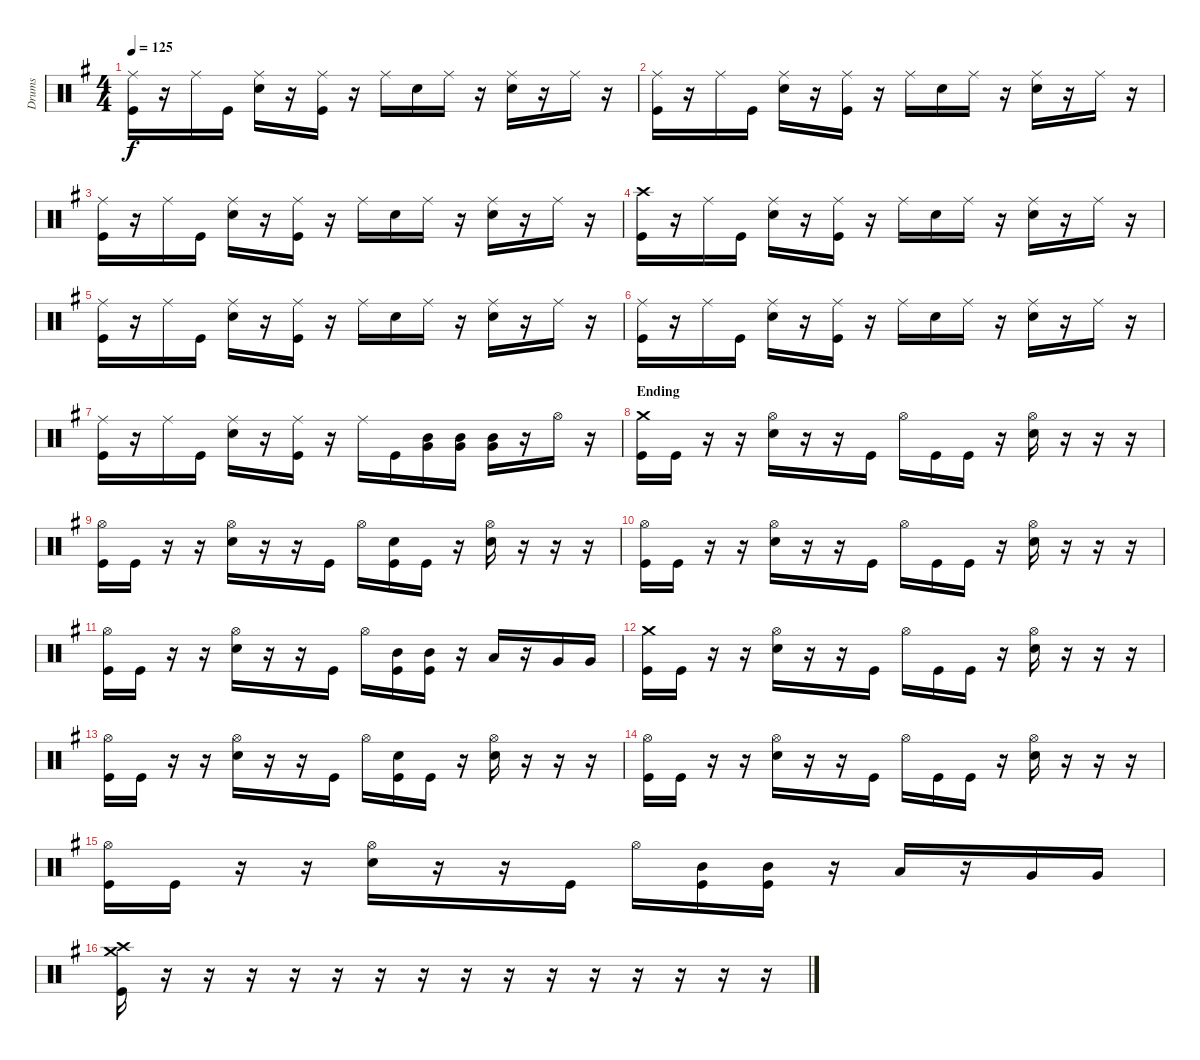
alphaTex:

\track ("Drums" "Drums") {instrument percussion}
\staff {score}
\articulation defaults
\ts (4 4)
\tempo 125
\clef neutral
\ks eminor
("Ride (middle)" "Kick (hit)").16{dy f} r.16 "Ride (middle)".16 "Kick (hit)".16 ("Ride (middle)" "Electric Snare (hit)").16 r.16 ("Ride (middle)" "Kick (hit)").16 r.16 "Ride (middle)".16 "Electric Snare (hit)".16 "Ride (middle)".16 r.16 ("Ride (middle)" "Electric Snare (hit)").16 r.16 "Ride (middle)".16 r.16 |
("Ride (middle)" "Kick (hit)").16 r.16 "Ride (middle)".16 "Kick (hit)".16 ("Ride (middle)" "Electric Snare (hit)").16 r.16 ("Ride (middle)" "Kick (hit)").16 r.16 "Ride (middle)".16 "Electric Snare (hit)".16 "Ride (middle)".16 r.16 ("Ride (middle)" "Electric Snare (hit)").16 r.16 "Ride (middle)".16 r.16 |
("Ride (middle)" "Kick (hit)").16 r.16 "Ride (middle)".16 "Kick (hit)".16 ("Ride (middle)" "Electric Snare (hit)").16 r.16 ("Ride (middle)" "Kick (hit)").16 r.16 "Ride (middle)".16 "Electric Snare (hit)".16 "Ride (middle)".16 r.16 ("Ride (middle)" "Electric Snare (hit)").16 r.16 "Ride (middle)".16 r.16 |
("Crash high (hit)" "Kick (hit)").16 r.16 "Ride (middle)".16 "Kick (hit)".16 ("Ride (middle)" "Electric Snare (hit)").16 r.16 ("Ride (middle)" "Kick (hit)").16 r.16 "Ride (middle)".16 "Electric Snare (hit)".16 "Ride (middle)".16 r.16 ("Ride (middle)" "Electric Snare (hit)").16 r.16 "Ride (middle)".16 r.16 |
("Ride (middle)" "Kick (hit)").16 r.16 "Ride (middle)".16 "Kick (hit)".16 ("Ride (middle)" "Electric Snare (hit)").16 r.16 ("Ride (middle)" "Kick (hit)").16 r.16 "Ride (middle)".16 "Electric Snare (hit)".16 "Ride (middle)".16 r.16 ("Ride (middle)" "Electric Snare (hit)").16 r.16 "Ride (middle)".16 r.16 |
("Ride (middle)" "Kick (hit)").16 r.16 "Ride (middle)".16 "Kick (hit)".16 ("Ride (middle)" "Electric Snare (hit)").16 r.16 ("Ride (middle)" "Kick (hit)").16 r.16 "Ride (middle)".16 "Electric Snare (hit)".16 "Ride (middle)".16 r.16 ("Ride (middle)" "Electric Snare (hit)").16 r.16 "Ride (middle)".16 r.16 |
("Ride (middle)" "Kick (hit)").16 r.16 "Ride (middle)".16 "Kick (hit)".16 ("Ride (middle)" "Electric Snare (hit)").16 r.16 ("Ride (middle)" "Kick (hit)").16 r.16 "Ride (middle)".16 "Kick (hit)".16 ("Mid Tom (hit)" "Very Low Tom (hit)").16 ("Mid Tom (hit)" "Very Low Tom (hit)").16 ("Mid Tom (hit)" "Very Low Tom (hit)").16 r.16 "Hi-Hat (open)".16 r.16 |
\section ("" "Ending")
("Crash medium (hit)" "Kick (hit)").16 "Kick (hit)".16 r.16 r.16 ("Hi-Hat (open)" "Electric Snare (hit)").16 r.16 r.16 "Kick (hit)".16 "Hi-Hat (open)".16 "Kick (hit)".16 "Kick (hit)".16 r.16 ("Hi-Hat (open)" "Electric Snare (hit)").16 r.16 r.16 r.16 |
("Hi-Hat (open)" "Kick (hit)").16 "Kick (hit)".16 r.16 r.16 ("Hi-Hat (open)" "Electric Snare (hit)").16 r.16 r.16 "Kick (hit)".16 "Hi-Hat (open)".16 ("Electric Snare (hit)" "Kick (hit)").16 "Kick (hit)".16 r.16 ("Hi-Hat (open)" "Electric Snare (hit)").16 r.16 r.16 r.16 |
("Hi-Hat (open)" "Kick (hit)").16 "Kick (hit)".16 r.16 r.16 ("Hi-Hat (open)" "Electric Snare (hit)").16 r.16 r.16 "Kick (hit)".16 "Hi-Hat (open)".16 "Kick (hit)".16 "Kick (hit)".16 r.16 ("Hi-Hat (open)" "Electric Snare (hit)").16 r.16 r.16 r.16 |
("Hi-Hat (open)" "Kick (hit)").16 "Kick (hit)".16 r.16 r.16 ("Hi-Hat (open)" "Electric Snare (hit)").16 r.16 r.16 "Kick (hit)".16 "Hi-Hat (open)".16 ("Mid Tom (hit)" "Kick (hit)").16 ("Mid Tom (hit)" "Kick (hit)").16 r.16 "Low Tom (hit)".16 r.16 "Very Low Tom (hit)".16 "Very Low Tom (hit)".16 |
("Crash medium (hit)" "Kick (hit)").16 "Kick (hit)".16 r.16 r.16 ("Hi-Hat (open)" "Electric Snare (hit)").16 r.16 r.16 "Kick (hit)".16 "Hi-Hat (open)".16 "Kick (hit)".16 "Kick (hit)".16 r.16 ("Hi-Hat (open)" "Electric Snare (hit)").16 r.16 r.16 r.16 |
("Hi-Hat (open)" "Kick (hit)").16 "Kick (hit)".16 r.16 r.16 ("Hi-Hat (open)" "Electric Snare (hit)").16 r.16 r.16 "Kick (hit)".16 "Hi-Hat (open)".16 ("Electric Snare (hit)" "Kick (hit)").16 "Kick (hit)".16 r.16 ("Hi-Hat (open)" "Electric Snare (hit)").16 r.16 r.16 r.16 |
("Hi-Hat (open)" "Kick (hit)").16 "Kick (hit)".16 r.16 r.16 ("Hi-Hat (open)" "Electric Snare (hit)").16 r.16 r.16 "Kick (hit)".16 "Hi-Hat (open)".16 "Kick (hit)".16 "Kick (hit)".16 r.16 ("Hi-Hat (open)" "Electric Snare (hit)").16 r.16 r.16 r.16 |
("Hi-Hat (open)" "Kick (hit)").16 "Kick (hit)".16 r.16 r.16 ("Hi-Hat (open)" "Electric Snare (hit)").16 r.16 r.16 "Kick (hit)".16 "Hi-Hat (open)".16 ("Mid Tom (hit)" "Kick (hit)").16 ("Mid Tom (hit)" "Kick (hit)").16 r.16 "Low Tom (hit)".16 r.16 "Very Low Tom (hit)".16 "Very Low Tom (hit)".16 |
("Crash high (hit)" "Crash medium (hit)" "Kick (hit)").16 r.16 r.16 r.16 r.16 r.16 r.16 r.16 r.16 r.16 r.16 r.16 r.16 r.16 r.16 r.16
